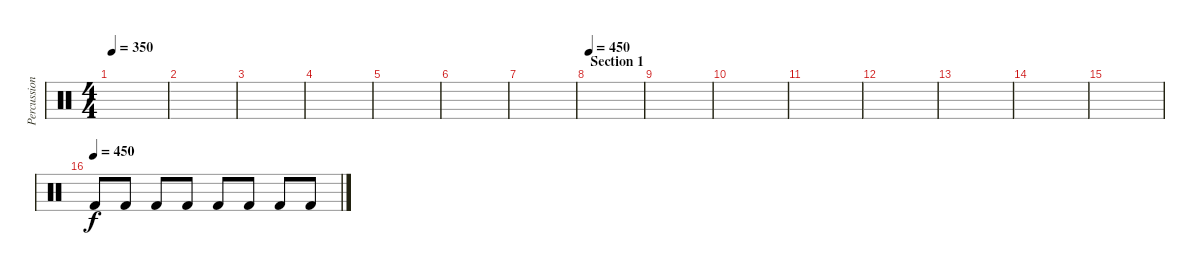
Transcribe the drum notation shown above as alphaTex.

\track ("Percussions2" "Percussion") {instrument percussion}
\staff {score}
\articulation defaults
\ts (4 4)
\tempo 350
\clef neutral
\ks c
|
|
|
|
|
|
|
\section ("" "Section 1")
\tempo 450
|
|
|
|
|
|
|
|
\tempo (450)
"Kick (hit) 2".8 "Kick (hit) 2".8 "Kick (hit) 2".8 "Kick (hit) 2".8 "Kick (hit) 2".8 "Kick (hit) 2".8 "Kick (hit) 2".8 "Kick (hit) 2".8
